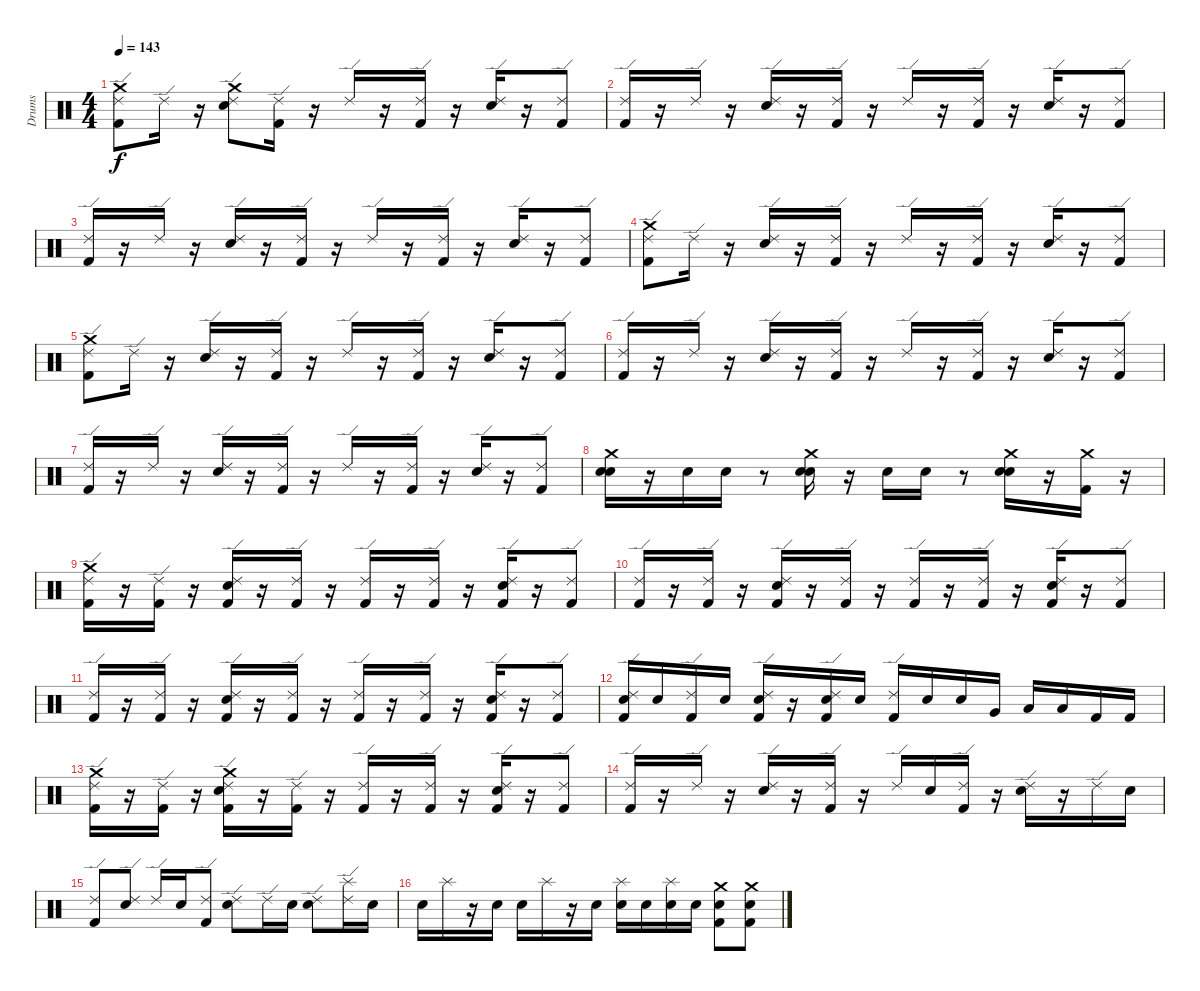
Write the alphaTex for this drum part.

\track ("Drums" "Drums") {instrument percussion}
\staff {score}
\articulation defaults
\ts (4 4)
\tempo 143
\clef neutral
\ks c
("Crash medium (hit)" "Kick (hit) 2" "Ride (edge) 2").8{dy f} "Ride (edge) 2".16 r.16 ("Crash medium (hit)" "Electric Snare (hit)" "Ride (edge) 2").8 ("Ride (edge) 2" "Kick (hit) 2").16 r.16 "Ride (edge) 2".16 r.16 ("Kick (hit) 2" "Ride (edge) 2").16 r.16 ("Electric Snare (hit)" "Ride (edge) 2").16 r.16 ("Kick (hit) 2" "Ride (edge) 2").8 |
("Kick (hit) 2" "Ride (edge) 2").16 r.16 "Ride (edge) 2".16 r.16 ("Electric Snare (hit)" "Ride (edge) 2").16 r.16 ("Ride (edge) 2" "Kick (hit) 2").16 r.16 "Ride (edge) 2".16 r.16 ("Kick (hit) 2" "Ride (edge) 2").16 r.16 ("Electric Snare (hit)" "Ride (edge) 2").16 r.16 ("Kick (hit) 2" "Ride (edge) 2").8 |
("Kick (hit) 2" "Ride (edge) 2").16 r.16 "Ride (edge) 2".16 r.16 ("Electric Snare (hit)" "Ride (edge) 2").16 r.16 ("Ride (edge) 2" "Kick (hit) 2").16 r.16 "Ride (edge) 2".16 r.16 ("Kick (hit) 2" "Ride (edge) 2").16 r.16 ("Electric Snare (hit)" "Ride (edge) 2").16 r.16 ("Kick (hit) 2" "Ride (edge) 2").8 |
("Crash medium (hit)" "Kick (hit) 2" "Ride (edge) 2").8 "Ride (edge) 2".16 r.16 ("Electric Snare (hit)" "Ride (edge) 2").16 r.16 ("Ride (edge) 2" "Kick (hit) 2").16 r.16 "Ride (edge) 2".16 r.16 ("Kick (hit) 2" "Ride (edge) 2").16 r.16 ("Electric Snare (hit)" "Ride (edge) 2").16 r.16 ("Kick (hit) 2" "Ride (edge) 2").8 |
("Crash medium (hit)" "Kick (hit) 2" "Ride (edge) 2").8 "Ride (edge) 2".16 r.16 ("Electric Snare (hit)" "Ride (edge) 2").16 r.16 ("Ride (edge) 2" "Kick (hit) 2").16 r.16 "Ride (edge) 2".16 r.16 ("Kick (hit) 2" "Ride (edge) 2").16 r.16 ("Electric Snare (hit)" "Ride (edge) 2").16 r.16 ("Kick (hit) 2" "Ride (edge) 2").8 |
("Kick (hit) 2" "Ride (edge) 2").16 r.16 "Ride (edge) 2".16 r.16 ("Electric Snare (hit)" "Ride (edge) 2").16 r.16 ("Ride (edge) 2" "Kick (hit) 2").16 r.16 "Ride (edge) 2".16 r.16 ("Kick (hit) 2" "Ride (edge) 2").16 r.16 ("Electric Snare (hit)" "Ride (edge) 2").16 r.16 ("Kick (hit) 2" "Ride (edge) 2").8 |
("Kick (hit) 2" "Ride (edge) 2").16 r.16 "Ride (edge) 2".16 r.16 ("Electric Snare (hit)" "Ride (edge) 2").16 r.16 ("Ride (edge) 2" "Kick (hit) 2").16 r.16 "Ride (edge) 2".16 r.16 ("Kick (hit) 2" "Ride (edge) 2").16 r.16 ("Electric Snare (hit)" "Ride (edge) 2").16 r.16 ("Kick (hit) 2" "Ride (edge) 2").8 |
("Crash medium (hit)" "Electric Snare (hit)" "Snare (hit) 2").16 r.16 "Electric Snare (hit)".16 "Electric Snare (hit)".16 r.8 ("Crash medium (hit)" "Snare (hit) 2" "Electric Snare (hit)").16 r.16 "Electric Snare (hit)".16 "Electric Snare (hit)".16 r.8 ("Crash medium (hit)" "Snare (hit) 2" "Electric Snare (hit)").16 r.16 ("Crash medium (hit)" "Kick (hit) 2").16 r.16 |
("Crash medium (hit)" "Kick (hit) 2" "Ride (edge) 2").16 r.16 ("Kick (hit) 2" "Ride (edge) 2").16 r.16 ("Kick (hit) 2" "Electric Snare (hit)" "Ride (edge) 2").16 r.16 ("Ride (edge) 2" "Kick (hit) 2").16 r.16 ("Kick (hit) 2" "Ride (edge) 2").16 r.16 ("Kick (hit) 2" "Ride (edge) 2").16 r.16 ("Kick (hit) 2" "Electric Snare (hit)" "Ride (edge) 2").16 r.16 ("Kick (hit) 2" "Ride (edge) 2").8 |
("Kick (hit) 2" "Ride (edge) 2").16 r.16 ("Kick (hit) 2" "Ride (edge) 2").16 r.16 ("Kick (hit) 2" "Electric Snare (hit)" "Ride (edge) 2").16 r.16 ("Ride (edge) 2" "Kick (hit) 2").16 r.16 ("Kick (hit) 2" "Ride (edge) 2").16 r.16 ("Kick (hit) 2" "Ride (edge) 2").16 r.16 ("Kick (hit) 2" "Electric Snare (hit)" "Ride (edge) 2").16 r.16 ("Kick (hit) 2" "Ride (edge) 2").8 |
("Kick (hit) 2" "Ride (edge) 2").16 r.16 ("Kick (hit) 2" "Ride (edge) 2").16 r.16 ("Kick (hit) 2" "Electric Snare (hit)" "Ride (edge) 2").16 r.16 ("Kick (hit) 2" "Ride (edge) 2").16 r.16 ("Kick (hit) 2" "Ride (edge) 2").16 r.16 ("Kick (hit) 2" "Ride (edge) 2").16 r.16 ("Kick (hit) 2" "Electric Snare (hit)" "Ride (edge) 2").16 r.16 ("Kick (hit) 2" "Ride (edge) 2").8 |
("Electric Snare (hit)" "Ride (edge) 2" "Kick (hit) 2").16 "Electric Snare (hit)".16 ("Ride (edge) 2" "Kick (hit) 2").16 "Electric Snare (hit)".16 ("Ride (edge) 2" "Electric Snare (hit)" "Kick (hit) 2").16 r.16 ("Electric Snare (hit)" "Ride (edge) 2" "Kick (hit) 2").16 "Electric Snare (hit)".16 ("Kick (hit) 2" "Ride (edge) 2").16 "Electric Snare (hit)".16 "Electric Snare (hit)".16 "Very Low Tom (hit)".16 "Low Floor Tom (hit)".16 "Low Floor Tom (hit)".16 "Kick (hit) 2".16 "Kick (hit) 2".16 |
("Crash medium (hit)" "Kick (hit) 2" "Ride (edge) 2").16 r.16 ("Kick (hit) 2" "Ride (edge) 2").16 r.16 ("Crash medium (hit)" "Kick (hit) 2" "Electric Snare (hit)" "Ride (edge) 2").16 r.16 ("Kick (hit) 2" "Ride (edge) 2").16 r.16 ("Kick (hit) 2" "Ride (edge) 2").16 r.16 ("Kick (hit) 2" "Ride (edge) 2").16 r.16 ("Kick (hit) 2" "Electric Snare (hit)" "Ride (edge) 2").16 r.16 ("Kick (hit) 2" "Ride (edge) 2").8 |
("Kick (hit) 2" "Ride (edge) 2").16 r.16 "Ride (edge) 2".16 r.16 ("Electric Snare (hit)" "Ride (edge) 2").16 r.16 ("Kick (hit) 2" "Ride (edge) 2").16 r.16 "Ride (edge) 2".16 "Electric Snare (hit)".16 ("Kick (hit) 2" "Ride (edge) 2").16 r.16 ("Electric Snare (hit)" "Ride (edge) 2").16 r.16 "Ride (edge) 2".16 "Electric Snare (hit)".16 |
("Ride (edge) 2" "Kick (hit) 2").8 ("Ride (edge) 2" "Electric Snare (hit)").8 "Ride (edge) 2".16 "Electric Snare (hit)".16 ("Ride (edge) 2" "Kick (hit) 2").8 ("Ride (edge) 2" "Electric Snare (hit)").8 "Ride (edge) 2".16 "Electric Snare (hit)".16 ("Electric Snare (hit)" "Ride (edge) 2").8 ("Ride (edge) 2" "Splash (hit)").16 "Electric Snare (hit)".16 |
"Electric Snare (hit)".16 "Splash (hit)".16 r.16 "Electric Snare (hit)".16 "Electric Snare (hit)".16 "Splash (hit)".16 r.16 "Electric Snare (hit)".16 ("Splash (hit)" "Electric Snare (hit)").16 "Electric Snare (hit)".16 ("Splash (hit)" "Electric Snare (hit)").16 "Electric Snare (hit)".16 ("Electric Snare (hit)" "Kick (hit) 2" "Crash medium (hit)").8 ("Electric Snare (hit)" "Kick (hit) 2" "Crash medium (hit)").8
